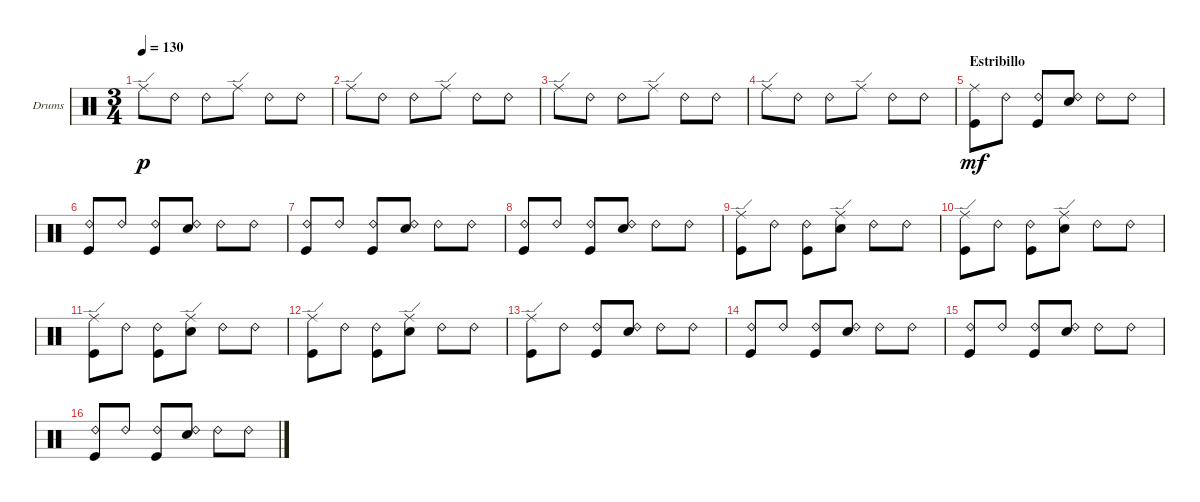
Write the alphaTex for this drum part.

\defaultSystemsLayout 4
\bracketExtendMode groupsimilarinstruments
\firstSystemTrackNameOrientation horizontal
\otherSystemsTrackNameOrientation horizontal
\track ("Drumkit" "Drums") {instrument percussion}
\staff {score}
\articulation defaults
\ts (3 4)
\tempo 130
\clef neutral
\ks c "Ride (edge)".8{dy p} "Ride (bell) 2".8 "Ride (bell) 2".8 "Ride (edge)".8 "Ride (bell) 2".8 "Ride (bell) 2".8
|
"Ride (edge)".8 "Ride (bell) 2".8 "Ride (bell) 2".8 "Ride (edge)".8 "Ride (bell) 2".8 "Ride (bell) 2".8 |
"Ride (edge)".8 "Ride (bell) 2".8 "Ride (bell) 2".8 "Ride (edge)".8 "Ride (bell) 2".8 "Ride (bell) 2".8 |
"Ride (edge)".8 "Ride (bell) 2".8 "Ride (bell) 2".8 "Ride (edge)".8 "Ride (bell) 2".8 "Ride (bell) 2".8 |
\section ("" "Estribillo")
("Kick (hit)" "Ride (middle)").8{dy mf} "Ride (bell) 2".8 ("Kick (hit)" "Ride (bell) 2").8 ("Snare (hit) 2" "Ride (bell) 2").8 "Ride (bell) 2".8 "Ride (bell) 2".8 |
("Kick (hit)" "Ride (bell) 2").8 "Ride (bell) 2".8 ("Kick (hit)" "Ride (bell) 2").8 ("Snare (hit) 2" "Ride (bell) 2").8 "Ride (bell) 2".8 "Ride (bell) 2".8 |
("Kick (hit)" "Ride (bell) 2").8 "Ride (bell) 2".8 ("Kick (hit)" "Ride (bell) 2").8 ("Snare (hit) 2" "Ride (bell) 2").8 "Ride (bell) 2".8 "Ride (bell) 2".8 |
("Kick (hit)" "Ride (bell) 2").8 "Ride (bell) 2".8 ("Kick (hit)" "Ride (bell) 2").8 ("Snare (hit) 2" "Ride (bell) 2").8 "Ride (bell) 2".8 "Ride (bell) 2".8 |
("Ride (edge)" "Kick (hit)").8 "Ride (bell) 2".8 ("Ride (bell) 2" "Kick (hit)").8 ("Ride (edge)" "Snare (hit) 2").8 "Ride (bell) 2".8 "Ride (bell) 2".8 |
("Ride (edge)" "Kick (hit)").8 "Ride (bell) 2".8 ("Ride (bell) 2" "Kick (hit)").8 ("Ride (edge)" "Snare (hit) 2").8 "Ride (bell) 2".8 "Ride (bell) 2".8 |
("Ride (edge)" "Kick (hit)").8 "Ride (bell) 2".8 ("Ride (bell) 2" "Kick (hit)").8 ("Ride (edge)" "Snare (hit) 2").8 "Ride (bell) 2".8 "Ride (bell) 2".8 |
("Ride (edge)" "Kick (hit)").8 "Ride (bell) 2".8 ("Ride (bell) 2" "Kick (hit)").8 ("Ride (edge)" "Snare (hit) 2").8 "Ride (bell) 2".8 "Ride (bell) 2".8 |
("Kick (hit)" "Ride (edge)").8 "Ride (bell) 2".8 ("Kick (hit)" "Ride (bell) 2").8 ("Snare (hit) 2" "Ride (bell) 2").8 "Ride (bell) 2".8 "Ride (bell) 2".8 |
("Kick (hit)" "Ride (bell) 2").8 "Ride (bell) 2".8 ("Kick (hit)" "Ride (bell) 2").8 ("Snare (hit) 2" "Ride (bell) 2").8 "Ride (bell) 2".8 "Ride (bell) 2".8 |
("Kick (hit)" "Ride (bell) 2").8 "Ride (bell) 2".8 ("Kick (hit)" "Ride (bell) 2").8 ("Snare (hit) 2" "Ride (bell) 2").8 "Ride (bell) 2".8 "Ride (bell) 2".8 |
("Kick (hit)" "Ride (bell) 2").8 "Ride (bell) 2".8 ("Kick (hit)" "Ride (bell) 2").8 ("Snare (hit) 2" "Ride (bell) 2").8 "Ride (bell) 2".8 "Ride (bell) 2".8
